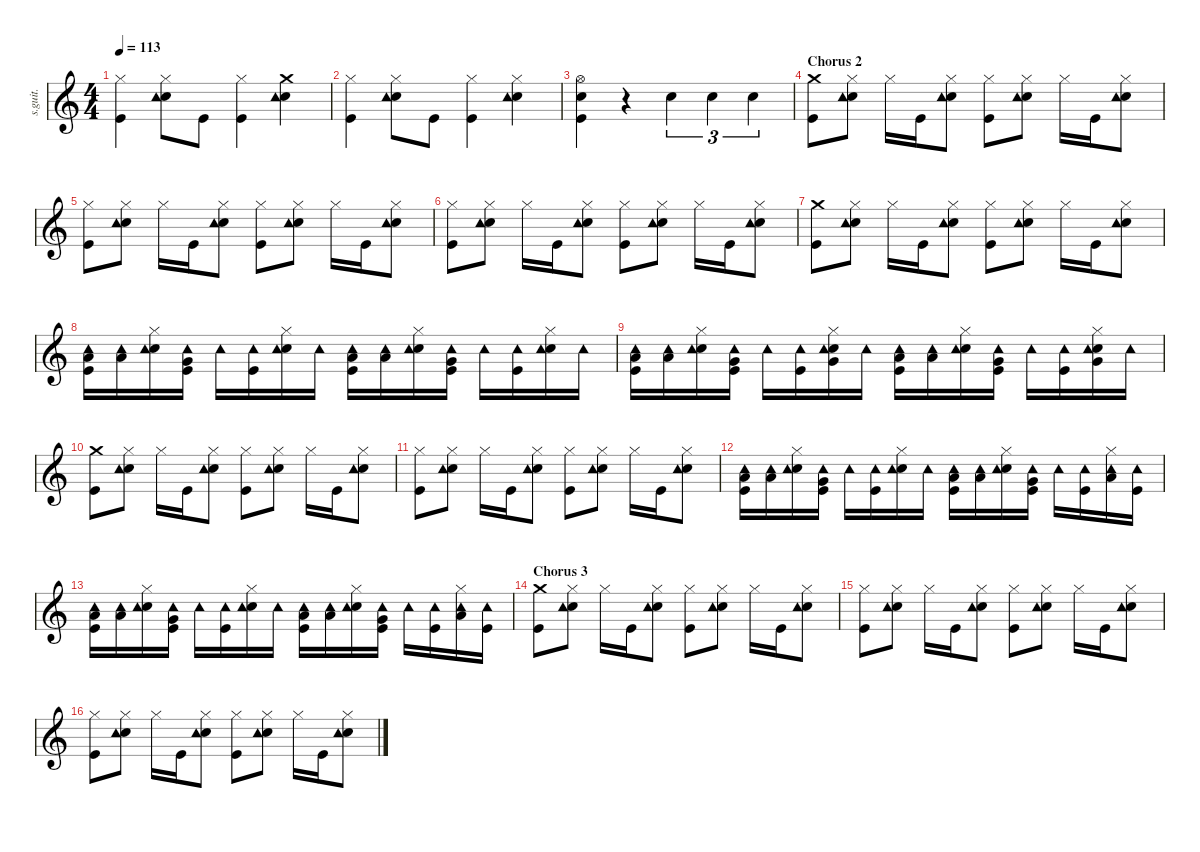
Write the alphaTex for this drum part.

\defaultSystemsLayout 4
\hideDynamics
\bracketExtendMode nobrackets
\track ("" "s.guit.") {instrument percussion}
\staff {score}
\articulation defaults
\ts (4 4)
\tempo 113
\clef g2
\ks c
("Hi-Hat (closed)" "Kick (hit)").4{lyrics (0 "") lyrics (1 "") lyrics (2 "") lyrics (3 "") lyrics (4 "") dy f} ("Hi-Hat (closed)" "Snare (hit) 2" "Tambourine (hit)").8{lyrics (0 "") lyrics (1 "") lyrics (2 "") lyrics (3 "") lyrics (4 "")} "Kick (hit)".8{lyrics (0 "") lyrics (1 "") lyrics (2 "") lyrics (3 "") lyrics (4 "")} ("Hi-Hat (closed)" "Kick (hit)").4{lyrics (0 "") lyrics (1 "") lyrics (2 "") lyrics (3 "") lyrics (4 "")} ("Crash medium (hit)" "Snare (hit) 2" "Tambourine (hit)").4{lyrics (0 "") lyrics (1 "") lyrics (2 "") lyrics (3 "") lyrics (4 "")} |
("Hi-Hat (closed)" "Kick (hit)").4{lyrics (0 "") lyrics (1 "") lyrics (2 "") lyrics (3 "") lyrics (4 "")} ("Hi-Hat (closed)" "Snare (hit) 2" "Tambourine (hit)").8{lyrics (0 "") lyrics (1 "") lyrics (2 "") lyrics (3 "") lyrics (4 "")} "Kick (hit)".8{lyrics (0 "") lyrics (1 "") lyrics (2 "") lyrics (3 "") lyrics (4 "")} ("Hi-Hat (closed)" "Kick (hit)").4{lyrics (0 "") lyrics (1 "") lyrics (2 "") lyrics (3 "") lyrics (4 "")} ("Hi-Hat (closed)" "Snare (hit) 2" "Tambourine (hit)").4{lyrics (0 "") lyrics (1 "") lyrics (2 "") lyrics (3 "") lyrics (4 "")} |
("Hi-Hat (open)" "Snare (hit) 2" "Kick (hit)").4{lyrics (0 "") lyrics (1 "") lyrics (2 "") lyrics (3 "") lyrics (4 "")} r.4 "Snare (hit) 2".4{tu (3 2) lyrics (0 "") lyrics (1 "") lyrics (2 "") lyrics (3 "") lyrics (4 "")} "Snare (hit) 2".4{tu (3 2) lyrics (0 "") lyrics (1 "") lyrics (2 "") lyrics (3 "") lyrics (4 "")} "Snare (hit) 2".4{tu (3 2) lyrics (0 "") lyrics (1 "") lyrics (2 "") lyrics (3 "") lyrics (4 "")} |
\section ("" "Chorus 2")
("Crash medium (hit)" "Kick (hit)").8{lyrics (0 "") lyrics (1 "") lyrics (2 "") lyrics (3 "") lyrics (4 "")} ("Hi-Hat (closed)" "Snare (hit) 2" "Tambourine (hit)").8{lyrics (0 "") lyrics (1 "") lyrics (2 "") lyrics (3 "") lyrics (4 "")} "Hi-Hat (closed)".16{lyrics (0 "") lyrics (1 "") lyrics (2 "") lyrics (3 "") lyrics (4 "")} "Kick (hit)".16{lyrics (0 "") lyrics (1 "") lyrics (2 "") lyrics (3 "") lyrics (4 "")} ("Hi-Hat (closed)" "Snare (hit) 2" "Tambourine (hit)").8{lyrics (0 "") lyrics (1 "") lyrics (2 "") lyrics (3 "") lyrics (4 "")} ("Hi-Hat (closed)" "Kick (hit)").8{lyrics (0 "") lyrics (1 "") lyrics (2 "") lyrics (3 "") lyrics (4 "")} ("Hi-Hat (closed)" "Snare (hit) 2" "Tambourine (hit)").8{lyrics (0 "") lyrics (1 "") lyrics (2 "") lyrics (3 "") lyrics (4 "")} "Hi-Hat (closed)".16{lyrics (0 "") lyrics (1 "") lyrics (2 "") lyrics (3 "") lyrics (4 "")} "Kick (hit)".16{lyrics (0 "") lyrics (1 "") lyrics (2 "") lyrics (3 "") lyrics (4 "")} ("Hi-Hat (closed)" "Snare (hit) 2" "Tambourine (hit)").8{lyrics (0 "") lyrics (1 "") lyrics (2 "") lyrics (3 "") lyrics (4 "")} |
("Hi-Hat (closed)" "Kick (hit)").8{lyrics (0 "") lyrics (1 "") lyrics (2 "") lyrics (3 "") lyrics (4 "")} ("Hi-Hat (closed)" "Snare (hit) 2" "Tambourine (hit)").8{lyrics (0 "") lyrics (1 "") lyrics (2 "") lyrics (3 "") lyrics (4 "")} "Hi-Hat (closed)".16{lyrics (0 "") lyrics (1 "") lyrics (2 "") lyrics (3 "") lyrics (4 "")} "Kick (hit)".16{lyrics (0 "") lyrics (1 "") lyrics (2 "") lyrics (3 "") lyrics (4 "")} ("Hi-Hat (closed)" "Snare (hit) 2" "Tambourine (hit)").8{lyrics (0 "") lyrics (1 "") lyrics (2 "") lyrics (3 "") lyrics (4 "")} ("Hi-Hat (closed)" "Kick (hit)").8{lyrics (0 "") lyrics (1 "") lyrics (2 "") lyrics (3 "") lyrics (4 "")} ("Hi-Hat (closed)" "Snare (hit) 2" "Tambourine (hit)").8{lyrics (0 "") lyrics (1 "") lyrics (2 "") lyrics (3 "") lyrics (4 "")} "Hi-Hat (closed)".16{lyrics (0 "") lyrics (1 "") lyrics (2 "") lyrics (3 "") lyrics (4 "")} "Kick (hit)".16{lyrics (0 "") lyrics (1 "") lyrics (2 "") lyrics (3 "") lyrics (4 "")} ("Hi-Hat (closed)" "Snare (hit) 2" "Tambourine (hit)").8{lyrics (0 "") lyrics (1 "") lyrics (2 "") lyrics (3 "") lyrics (4 "")} |
("Hi-Hat (closed)" "Kick (hit)").8{lyrics (0 "") lyrics (1 "") lyrics (2 "") lyrics (3 "") lyrics (4 "")} ("Hi-Hat (closed)" "Snare (hit) 2" "Tambourine (hit)").8{lyrics (0 "") lyrics (1 "") lyrics (2 "") lyrics (3 "") lyrics (4 "")} "Hi-Hat (closed)".16{lyrics (0 "") lyrics (1 "") lyrics (2 "") lyrics (3 "") lyrics (4 "")} "Kick (hit)".16{lyrics (0 "") lyrics (1 "") lyrics (2 "") lyrics (3 "") lyrics (4 "")} ("Hi-Hat (closed)" "Snare (hit) 2" "Tambourine (hit)").8{lyrics (0 "") lyrics (1 "") lyrics (2 "") lyrics (3 "") lyrics (4 "")} ("Hi-Hat (closed)" "Kick (hit)").8{lyrics (0 "") lyrics (1 "") lyrics (2 "") lyrics (3 "") lyrics (4 "")} ("Hi-Hat (closed)" "Snare (hit) 2" "Tambourine (hit)").8{lyrics (0 "") lyrics (1 "") lyrics (2 "") lyrics (3 "") lyrics (4 "")} "Hi-Hat (closed)".16{lyrics (0 "") lyrics (1 "") lyrics (2 "") lyrics (3 "") lyrics (4 "")} "Kick (hit)".16{lyrics (0 "") lyrics (1 "") lyrics (2 "") lyrics (3 "") lyrics (4 "")} ("Hi-Hat (closed)" "Snare (hit) 2" "Tambourine (hit)").8{lyrics (0 "") lyrics (1 "") lyrics (2 "") lyrics (3 "") lyrics (4 "")} |
("Crash medium (hit)" "Kick (hit)").8{lyrics (0 "") lyrics (1 "") lyrics (2 "") lyrics (3 "") lyrics (4 "")} ("Hi-Hat (closed)" "Snare (hit) 2" "Tambourine (hit)").8{lyrics (0 "") lyrics (1 "") lyrics (2 "") lyrics (3 "") lyrics (4 "")} "Hi-Hat (closed)".16{lyrics (0 "") lyrics (1 "") lyrics (2 "") lyrics (3 "") lyrics (4 "")} "Kick (hit)".16{lyrics (0 "") lyrics (1 "") lyrics (2 "") lyrics (3 "") lyrics (4 "")} ("Hi-Hat (closed)" "Snare (hit) 2" "Tambourine (hit)").8{lyrics (0 "") lyrics (1 "") lyrics (2 "") lyrics (3 "") lyrics (4 "")} ("Hi-Hat (closed)" "Kick (hit)").8{lyrics (0 "") lyrics (1 "") lyrics (2 "") lyrics (3 "") lyrics (4 "")} ("Hi-Hat (closed)" "Snare (hit) 2" "Tambourine (hit)").8{lyrics (0 "") lyrics (1 "") lyrics (2 "") lyrics (3 "") lyrics (4 "")} "Hi-Hat (closed)".16{lyrics (0 "") lyrics (1 "") lyrics (2 "") lyrics (3 "") lyrics (4 "")} "Kick (hit)".16{lyrics (0 "") lyrics (1 "") lyrics (2 "") lyrics (3 "") lyrics (4 "")} ("Hi-Hat (closed)" "Snare (hit) 2" "Tambourine (hit)").8{lyrics (0 "") lyrics (1 "") lyrics (2 "") lyrics (3 "") lyrics (4 "")} |
("Tambourine (hit)" "Low Tom (hit)" "Kick (hit)").16{lyrics (0 "") lyrics (1 "") lyrics (2 "") lyrics (3 "") lyrics (4 "")} ("Tambourine (hit)" "Low Floor Tom (hit)").16{lyrics (0 "") lyrics (1 "") lyrics (2 "") lyrics (3 "") lyrics (4 "")} ("Hi-Hat (closed)" "Snare (hit) 2" "Tambourine (hit)").16{lyrics (0 "") lyrics (1 "") lyrics (2 "") lyrics (3 "") lyrics (4 "")} ("Tambourine (hit)" "Very Low Tom (hit)" "Kick (hit)").16{lyrics (0 "") lyrics (1 "") lyrics (2 "") lyrics (3 "") lyrics (4 "")} "Tambourine (hit)".16{lyrics (0 "") lyrics (1 "") lyrics (2 "") lyrics (3 "") lyrics (4 "")} ("Tambourine (hit)" "Kick (hit)").16{lyrics (0 "") lyrics (1 "") lyrics (2 "") lyrics (3 "") lyrics (4 "")} ("Hi-Hat (closed)" "Snare (hit) 2" "Tambourine (hit)").16{lyrics (0 "") lyrics (1 "") lyrics (2 "") lyrics (3 "") lyrics (4 "")} "Tambourine (hit)".16{lyrics (0 "") lyrics (1 "") lyrics (2 "") lyrics (3 "") lyrics (4 "")} ("Tambourine (hit)" "Low Tom (hit)" "Kick (hit)").16{lyrics (0 "") lyrics (1 "") lyrics (2 "") lyrics (3 "") lyrics (4 "")} ("Tambourine (hit)" "Low Floor Tom (hit)").16{lyrics (0 "") lyrics (1 "") lyrics (2 "") lyrics (3 "") lyrics (4 "")} ("Hi-Hat (closed)" "Snare (hit) 2" "Tambourine (hit)").16{lyrics (0 "") lyrics (1 "") lyrics (2 "") lyrics (3 "") lyrics (4 "")} ("Tambourine (hit)" "Very Low Tom (hit)" "Kick (hit)").16{lyrics (0 "") lyrics (1 "") lyrics (2 "") lyrics (3 "") lyrics (4 "")} "Tambourine (hit)".16{lyrics (0 "") lyrics (1 "") lyrics (2 "") lyrics (3 "") lyrics (4 "")} ("Tambourine (hit)" "Kick (hit)").16{lyrics (0 "") lyrics (1 "") lyrics (2 "") lyrics (3 "") lyrics (4 "")} ("Hi-Hat (closed)" "Snare (hit) 2" "Tambourine (hit)").16{lyrics (0 "") lyrics (1 "") lyrics (2 "") lyrics (3 "") lyrics (4 "")} "Tambourine (hit)".16{lyrics (0 "") lyrics (1 "") lyrics (2 "") lyrics (3 "") lyrics (4 "")} |
("Tambourine (hit)" "Low Tom (hit)" "Kick (hit)").16{lyrics (0 "") lyrics (1 "") lyrics (2 "") lyrics (3 "") lyrics (4 "")} ("Tambourine (hit)" "Low Floor Tom (hit)").16{lyrics (0 "") lyrics (1 "") lyrics (2 "") lyrics (3 "") lyrics (4 "")} ("Hi-Hat (closed)" "Snare (hit) 2" "Tambourine (hit)").16{lyrics (0 "") lyrics (1 "") lyrics (2 "") lyrics (3 "") lyrics (4 "")} ("Tambourine (hit)" "Very Low Tom (hit)" "Kick (hit)").16{lyrics (0 "") lyrics (1 "") lyrics (2 "") lyrics (3 "") lyrics (4 "")} "Tambourine (hit)".16{lyrics (0 "") lyrics (1 "") lyrics (2 "") lyrics (3 "") lyrics (4 "")} ("Tambourine (hit)" "Kick (hit)").16{lyrics (0 "") lyrics (1 "") lyrics (2 "") lyrics (3 "") lyrics (4 "")} ("Hi-Hat (closed)" "Snare (hit) 2" "Tambourine (hit)" "Very Low Tom (hit)").16{lyrics (0 "") lyrics (1 "") lyrics (2 "") lyrics (3 "") lyrics (4 "")} "Tambourine (hit)".16{lyrics (0 "") lyrics (1 "") lyrics (2 "") lyrics (3 "") lyrics (4 "")} ("Tambourine (hit)" "Low Tom (hit)" "Kick (hit)").16{lyrics (0 "") lyrics (1 "") lyrics (2 "") lyrics (3 "") lyrics (4 "")} ("Tambourine (hit)" "Low Floor Tom (hit)").16{lyrics (0 "") lyrics (1 "") lyrics (2 "") lyrics (3 "") lyrics (4 "")} ("Hi-Hat (closed)" "Snare (hit) 2" "Tambourine (hit)").16{lyrics (0 "") lyrics (1 "") lyrics (2 "") lyrics (3 "") lyrics (4 "")} ("Tambourine (hit)" "Very Low Tom (hit)" "Kick (hit)").16{lyrics (0 "") lyrics (1 "") lyrics (2 "") lyrics (3 "") lyrics (4 "")} "Tambourine (hit)".16{lyrics (0 "") lyrics (1 "") lyrics (2 "") lyrics (3 "") lyrics (4 "")} ("Tambourine (hit)" "Kick (hit)").16{lyrics (0 "") lyrics (1 "") lyrics (2 "") lyrics (3 "") lyrics (4 "")} ("Hi-Hat (closed)" "Snare (hit) 2" "Tambourine (hit)" "Very Low Tom (hit)").16{lyrics (0 "") lyrics (1 "") lyrics (2 "") lyrics (3 "") lyrics (4 "")} "Tambourine (hit)".16{lyrics (0 "") lyrics (1 "") lyrics (2 "") lyrics (3 "") lyrics (4 "")} |
("Crash medium (hit)" "Kick (hit)").8{lyrics (0 "") lyrics (1 "") lyrics (2 "") lyrics (3 "") lyrics (4 "")} ("Hi-Hat (closed)" "Snare (hit) 2" "Tambourine (hit)").8{lyrics (0 "") lyrics (1 "") lyrics (2 "") lyrics (3 "") lyrics (4 "")} "Hi-Hat (closed)".16{lyrics (0 "") lyrics (1 "") lyrics (2 "") lyrics (3 "") lyrics (4 "")} "Kick (hit)".16{lyrics (0 "") lyrics (1 "") lyrics (2 "") lyrics (3 "") lyrics (4 "")} ("Hi-Hat (closed)" "Snare (hit) 2" "Tambourine (hit)").8{lyrics (0 "") lyrics (1 "") lyrics (2 "") lyrics (3 "") lyrics (4 "")} ("Hi-Hat (closed)" "Kick (hit)").8{lyrics (0 "") lyrics (1 "") lyrics (2 "") lyrics (3 "") lyrics (4 "")} ("Hi-Hat (closed)" "Snare (hit) 2" "Tambourine (hit)").8{lyrics (0 "") lyrics (1 "") lyrics (2 "") lyrics (3 "") lyrics (4 "")} "Hi-Hat (closed)".16{lyrics (0 "") lyrics (1 "") lyrics (2 "") lyrics (3 "") lyrics (4 "")} "Kick (hit)".16{lyrics (0 "") lyrics (1 "") lyrics (2 "") lyrics (3 "") lyrics (4 "")} ("Hi-Hat (closed)" "Snare (hit) 2" "Tambourine (hit)").8{lyrics (0 "") lyrics (1 "") lyrics (2 "") lyrics (3 "") lyrics (4 "")} |
("Hi-Hat (closed)" "Kick (hit)").8{lyrics (0 "") lyrics (1 "") lyrics (2 "") lyrics (3 "") lyrics (4 "")} ("Hi-Hat (closed)" "Snare (hit) 2" "Tambourine (hit)").8{lyrics (0 "") lyrics (1 "") lyrics (2 "") lyrics (3 "") lyrics (4 "")} "Hi-Hat (closed)".16{lyrics (0 "") lyrics (1 "") lyrics (2 "") lyrics (3 "") lyrics (4 "")} "Kick (hit)".16{lyrics (0 "") lyrics (1 "") lyrics (2 "") lyrics (3 "") lyrics (4 "")} ("Hi-Hat (closed)" "Snare (hit) 2" "Tambourine (hit)").8{lyrics (0 "") lyrics (1 "") lyrics (2 "") lyrics (3 "") lyrics (4 "")} ("Hi-Hat (closed)" "Kick (hit)").8{lyrics (0 "") lyrics (1 "") lyrics (2 "") lyrics (3 "") lyrics (4 "")} ("Hi-Hat (closed)" "Snare (hit) 2" "Tambourine (hit)").8{lyrics (0 "") lyrics (1 "") lyrics (2 "") lyrics (3 "") lyrics (4 "")} "Hi-Hat (closed)".16{lyrics (0 "") lyrics (1 "") lyrics (2 "") lyrics (3 "") lyrics (4 "")} "Kick (hit)".16{lyrics (0 "") lyrics (1 "") lyrics (2 "") lyrics (3 "") lyrics (4 "")} ("Hi-Hat (closed)" "Snare (hit) 2" "Tambourine (hit)").8{lyrics (0 "") lyrics (1 "") lyrics (2 "") lyrics (3 "") lyrics (4 "")} |
("Tambourine (hit)" "Low Tom (hit)" "Kick (hit)").16{lyrics (0 "") lyrics (1 "") lyrics (2 "") lyrics (3 "") lyrics (4 "")} ("Tambourine (hit)" "Low Floor Tom (hit)").16{lyrics (0 "") lyrics (1 "") lyrics (2 "") lyrics (3 "") lyrics (4 "")} ("Hi-Hat (closed)" "Snare (hit) 2" "Tambourine (hit)").16{lyrics (0 "") lyrics (1 "") lyrics (2 "") lyrics (3 "") lyrics (4 "")} ("Tambourine (hit)" "Very Low Tom (hit)" "Kick (hit)").16{lyrics (0 "") lyrics (1 "") lyrics (2 "") lyrics (3 "") lyrics (4 "")} "Tambourine (hit)".16{lyrics (0 "") lyrics (1 "") lyrics (2 "") lyrics (3 "") lyrics (4 "")} ("Tambourine (hit)" "Kick (hit)").16{lyrics (0 "") lyrics (1 "") lyrics (2 "") lyrics (3 "") lyrics (4 "")} ("Hi-Hat (closed)" "Snare (hit) 2" "Tambourine (hit)").16{lyrics (0 "") lyrics (1 "") lyrics (2 "") lyrics (3 "") lyrics (4 "")} "Tambourine (hit)".16{lyrics (0 "") lyrics (1 "") lyrics (2 "") lyrics (3 "") lyrics (4 "")} ("Tambourine (hit)" "Low Tom (hit)" "Kick (hit)").16{lyrics (0 "") lyrics (1 "") lyrics (2 "") lyrics (3 "") lyrics (4 "")} ("Tambourine (hit)" "Low Floor Tom (hit)").16{lyrics (0 "") lyrics (1 "") lyrics (2 "") lyrics (3 "") lyrics (4 "")} ("Hi-Hat (closed)" "Snare (hit) 2" "Tambourine (hit)").16{lyrics (0 "") lyrics (1 "") lyrics (2 "") lyrics (3 "") lyrics (4 "")} ("Tambourine (hit)" "Very Low Tom (hit)" "Kick (hit)").16{lyrics (0 "") lyrics (1 "") lyrics (2 "") lyrics (3 "") lyrics (4 "")} "Tambourine (hit)".16{lyrics (0 "") lyrics (1 "") lyrics (2 "") lyrics (3 "") lyrics (4 "")} ("Tambourine (hit)" "Kick (hit)").16{lyrics (0 "") lyrics (1 "") lyrics (2 "") lyrics (3 "") lyrics (4 "")} ("Hi-Hat (closed)" "Tambourine (hit)" "Low Tom (hit)").16{lyrics (0 "") lyrics (1 "") lyrics (2 "") lyrics (3 "") lyrics (4 "")} ("Tambourine (hit)" "Kick (hit)").16{lyrics (0 "") lyrics (1 "") lyrics (2 "") lyrics (3 "") lyrics (4 "")} |
("Tambourine (hit)" "Low Tom (hit)" "Kick (hit)").16{lyrics (0 "") lyrics (1 "") lyrics (2 "") lyrics (3 "") lyrics (4 "")} ("Tambourine (hit)" "Low Floor Tom (hit)").16{lyrics (0 "") lyrics (1 "") lyrics (2 "") lyrics (3 "") lyrics (4 "")} ("Hi-Hat (closed)" "Snare (hit) 2" "Tambourine (hit)").16{lyrics (0 "") lyrics (1 "") lyrics (2 "") lyrics (3 "") lyrics (4 "")} ("Tambourine (hit)" "Very Low Tom (hit)" "Kick (hit)").16{lyrics (0 "") lyrics (1 "") lyrics (2 "") lyrics (3 "") lyrics (4 "")} "Tambourine (hit)".16{lyrics (0 "") lyrics (1 "") lyrics (2 "") lyrics (3 "") lyrics (4 "")} ("Tambourine (hit)" "Kick (hit)").16{lyrics (0 "") lyrics (1 "") lyrics (2 "") lyrics (3 "") lyrics (4 "")} ("Hi-Hat (closed)" "Snare (hit) 2" "Tambourine (hit)").16{lyrics (0 "") lyrics (1 "") lyrics (2 "") lyrics (3 "") lyrics (4 "")} "Tambourine (hit)".16{lyrics (0 "") lyrics (1 "") lyrics (2 "") lyrics (3 "") lyrics (4 "")} ("Tambourine (hit)" "Low Tom (hit)" "Kick (hit)").16{lyrics (0 "") lyrics (1 "") lyrics (2 "") lyrics (3 "") lyrics (4 "")} ("Tambourine (hit)" "Low Floor Tom (hit)").16{lyrics (0 "") lyrics (1 "") lyrics (2 "") lyrics (3 "") lyrics (4 "")} ("Hi-Hat (closed)" "Snare (hit) 2" "Tambourine (hit)").16{lyrics (0 "") lyrics (1 "") lyrics (2 "") lyrics (3 "") lyrics (4 "")} ("Tambourine (hit)" "Very Low Tom (hit)" "Kick (hit)").16{lyrics (0 "") lyrics (1 "") lyrics (2 "") lyrics (3 "") lyrics (4 "")} "Tambourine (hit)".16{lyrics (0 "") lyrics (1 "") lyrics (2 "") lyrics (3 "") lyrics (4 "")} ("Tambourine (hit)" "Kick (hit)").16{lyrics (0 "") lyrics (1 "") lyrics (2 "") lyrics (3 "") lyrics (4 "")} ("Hi-Hat (closed)" "Tambourine (hit)" "Low Tom (hit)").16{lyrics (0 "") lyrics (1 "") lyrics (2 "") lyrics (3 "") lyrics (4 "")} ("Tambourine (hit)" "Kick (hit)").16{lyrics (0 "") lyrics (1 "") lyrics (2 "") lyrics (3 "") lyrics (4 "")} |
\section ("" "Chorus 3")
("Crash medium (hit)" "Kick (hit)").8{lyrics (0 "") lyrics (1 "") lyrics (2 "") lyrics (3 "") lyrics (4 "")} ("Hi-Hat (closed)" "Snare (hit) 2" "Tambourine (hit)").8{lyrics (0 "") lyrics (1 "") lyrics (2 "") lyrics (3 "") lyrics (4 "")} "Hi-Hat (closed)".16{lyrics (0 "") lyrics (1 "") lyrics (2 "") lyrics (3 "") lyrics (4 "")} "Kick (hit)".16{lyrics (0 "") lyrics (1 "") lyrics (2 "") lyrics (3 "") lyrics (4 "")} ("Hi-Hat (closed)" "Snare (hit) 2" "Tambourine (hit)").8{lyrics (0 "") lyrics (1 "") lyrics (2 "") lyrics (3 "") lyrics (4 "")} ("Hi-Hat (closed)" "Kick (hit)").8{lyrics (0 "") lyrics (1 "") lyrics (2 "") lyrics (3 "") lyrics (4 "")} ("Hi-Hat (closed)" "Snare (hit) 2" "Tambourine (hit)").8{lyrics (0 "") lyrics (1 "") lyrics (2 "") lyrics (3 "") lyrics (4 "")} "Hi-Hat (closed)".16{lyrics (0 "") lyrics (1 "") lyrics (2 "") lyrics (3 "") lyrics (4 "")} "Kick (hit)".16{lyrics (0 "") lyrics (1 "") lyrics (2 "") lyrics (3 "") lyrics (4 "")} ("Hi-Hat (closed)" "Snare (hit) 2" "Tambourine (hit)").8{lyrics (0 "") lyrics (1 "") lyrics (2 "") lyrics (3 "") lyrics (4 "")} |
("Hi-Hat (closed)" "Kick (hit)").8{lyrics (0 "") lyrics (1 "") lyrics (2 "") lyrics (3 "") lyrics (4 "")} ("Hi-Hat (closed)" "Snare (hit) 2" "Tambourine (hit)").8{lyrics (0 "") lyrics (1 "") lyrics (2 "") lyrics (3 "") lyrics (4 "")} "Hi-Hat (closed)".16{lyrics (0 "") lyrics (1 "") lyrics (2 "") lyrics (3 "") lyrics (4 "")} "Kick (hit)".16{lyrics (0 "") lyrics (1 "") lyrics (2 "") lyrics (3 "") lyrics (4 "")} ("Hi-Hat (closed)" "Snare (hit) 2" "Tambourine (hit)").8{lyrics (0 "") lyrics (1 "") lyrics (2 "") lyrics (3 "") lyrics (4 "")} ("Hi-Hat (closed)" "Kick (hit)").8{lyrics (0 "") lyrics (1 "") lyrics (2 "") lyrics (3 "") lyrics (4 "")} ("Hi-Hat (closed)" "Snare (hit) 2" "Tambourine (hit)").8{lyrics (0 "") lyrics (1 "") lyrics (2 "") lyrics (3 "") lyrics (4 "")} "Hi-Hat (closed)".16{lyrics (0 "") lyrics (1 "") lyrics (2 "") lyrics (3 "") lyrics (4 "")} "Kick (hit)".16{lyrics (0 "") lyrics (1 "") lyrics (2 "") lyrics (3 "") lyrics (4 "")} ("Hi-Hat (closed)" "Snare (hit) 2" "Tambourine (hit)").8{lyrics (0 "") lyrics (1 "") lyrics (2 "") lyrics (3 "") lyrics (4 "")} |
("Hi-Hat (closed)" "Kick (hit)").8{lyrics (0 "") lyrics (1 "") lyrics (2 "") lyrics (3 "") lyrics (4 "")} ("Hi-Hat (closed)" "Snare (hit) 2" "Tambourine (hit)").8{lyrics (0 "") lyrics (1 "") lyrics (2 "") lyrics (3 "") lyrics (4 "")} "Hi-Hat (closed)".16{lyrics (0 "") lyrics (1 "") lyrics (2 "") lyrics (3 "") lyrics (4 "")} "Kick (hit)".16{lyrics (0 "") lyrics (1 "") lyrics (2 "") lyrics (3 "") lyrics (4 "")} ("Hi-Hat (closed)" "Snare (hit) 2" "Tambourine (hit)").8{lyrics (0 "") lyrics (1 "") lyrics (2 "") lyrics (3 "") lyrics (4 "")} ("Hi-Hat (closed)" "Kick (hit)").8{lyrics (0 "") lyrics (1 "") lyrics (2 "") lyrics (3 "") lyrics (4 "")} ("Hi-Hat (closed)" "Snare (hit) 2" "Tambourine (hit)").8{lyrics (0 "") lyrics (1 "") lyrics (2 "") lyrics (3 "") lyrics (4 "")} "Hi-Hat (closed)".16{lyrics (0 "") lyrics (1 "") lyrics (2 "") lyrics (3 "") lyrics (4 "")} "Kick (hit)".16{lyrics (0 "") lyrics (1 "") lyrics (2 "") lyrics (3 "") lyrics (4 "")} ("Hi-Hat (closed)" "Snare (hit) 2" "Tambourine (hit)").8{lyrics (0 "") lyrics (1 "") lyrics (2 "") lyrics (3 "") lyrics (4 "")}
